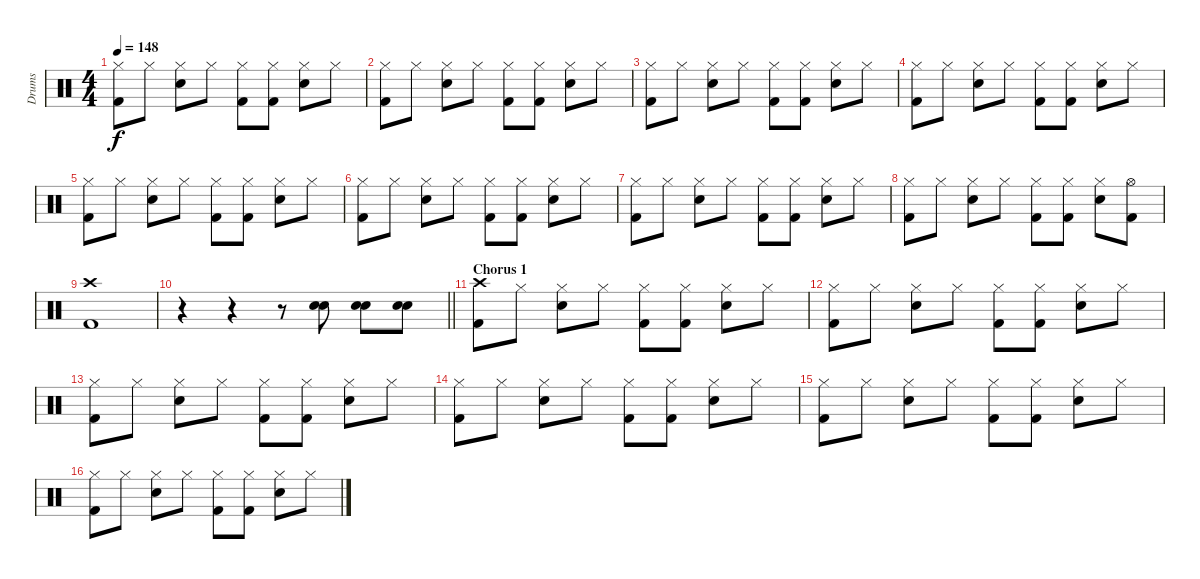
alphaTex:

\track ("Drums " "Drums ") {instrument percussion}
\staff {score}
\articulation defaults
\ts (4 4)
\tempo 148
\clef neutral
\ks c
("Hi-Hat (closed)" "Kick (hit) 2").8{dy f} "Hi-Hat (closed)".8 ("Hi-Hat (closed)" "Snare (hit) 2").8 "Hi-Hat (closed)".8 ("Hi-Hat (closed)" "Kick (hit) 2").8 ("Hi-Hat (closed)" "Kick (hit) 2").8 ("Hi-Hat (closed)" "Snare (hit) 2").8 "Hi-Hat (closed)".8 |
("Hi-Hat (closed)" "Kick (hit) 2").8 "Hi-Hat (closed)".8 ("Hi-Hat (closed)" "Snare (hit) 2").8 "Hi-Hat (closed)".8 ("Hi-Hat (closed)" "Kick (hit) 2").8 ("Hi-Hat (closed)" "Kick (hit) 2").8 ("Hi-Hat (closed)" "Snare (hit) 2").8 "Hi-Hat (closed)".8 |
("Hi-Hat (closed)" "Kick (hit) 2").8 "Hi-Hat (closed)".8 ("Hi-Hat (closed)" "Snare (hit) 2").8 "Hi-Hat (closed)".8 ("Hi-Hat (closed)" "Kick (hit) 2").8 ("Hi-Hat (closed)" "Kick (hit) 2").8 ("Hi-Hat (closed)" "Snare (hit) 2").8 "Hi-Hat (closed)".8 |
("Hi-Hat (closed)" "Kick (hit) 2").8 "Hi-Hat (closed)".8 ("Hi-Hat (closed)" "Snare (hit) 2").8 "Hi-Hat (closed)".8 ("Hi-Hat (closed)" "Kick (hit) 2").8 ("Hi-Hat (closed)" "Kick (hit) 2").8 ("Hi-Hat (closed)" "Snare (hit) 2").8 "Hi-Hat (closed)".8 |
("Hi-Hat (closed)" "Kick (hit) 2").8 "Hi-Hat (closed)".8 ("Hi-Hat (closed)" "Snare (hit) 2").8 "Hi-Hat (closed)".8 ("Hi-Hat (closed)" "Kick (hit) 2").8 ("Hi-Hat (closed)" "Kick (hit) 2").8 ("Hi-Hat (closed)" "Snare (hit) 2").8 "Hi-Hat (closed)".8 |
("Hi-Hat (closed)" "Kick (hit) 2").8 "Hi-Hat (closed)".8 ("Hi-Hat (closed)" "Snare (hit) 2").8 "Hi-Hat (closed)".8 ("Hi-Hat (closed)" "Kick (hit) 2").8 ("Hi-Hat (closed)" "Kick (hit) 2").8 ("Hi-Hat (closed)" "Snare (hit) 2").8 "Hi-Hat (closed)".8 |
("Hi-Hat (closed)" "Kick (hit) 2").8 "Hi-Hat (closed)".8 ("Hi-Hat (closed)" "Snare (hit) 2").8 "Hi-Hat (closed)".8 ("Hi-Hat (closed)" "Kick (hit) 2").8 ("Hi-Hat (closed)" "Kick (hit) 2").8 ("Hi-Hat (closed)" "Snare (hit) 2").8 "Hi-Hat (closed)".8 |
("Hi-Hat (closed)" "Kick (hit) 2").8 "Hi-Hat (closed)".8 ("Hi-Hat (closed)" "Snare (hit) 2").8 "Hi-Hat (closed)".8 ("Hi-Hat (closed)" "Kick (hit) 2").8 ("Hi-Hat (closed)" "Kick (hit) 2").8 ("Hi-Hat (closed)" "Snare (hit) 2").8 ("Hi-Hat (open)" "Kick (hit) 2").8 |
("Crash high (hit)" "Kick (hit) 2").1 |
\barLineRight lightlight
r.4 r.4 r.8 ("Hand Clap (hit)" "Snare (hit) 2").8 ("Hand Clap (hit)" "Snare (hit) 2").8 ("Hand Clap (hit)" "Snare (hit) 2").8 |
\section ("" "Chorus 1")
("Crash high (hit)" "Kick (hit) 2").8 "Hi-Hat (closed)".8 ("Hi-Hat (closed)" "Snare (hit) 2").8 "Hi-Hat (closed)".8 ("Hi-Hat (closed)" "Kick (hit) 2").8 ("Hi-Hat (closed)" "Kick (hit) 2").8 ("Hi-Hat (closed)" "Snare (hit) 2").8 "Hi-Hat (closed)".8 |
("Hi-Hat (closed)" "Kick (hit) 2").8 "Hi-Hat (closed)".8 ("Hi-Hat (closed)" "Snare (hit) 2").8 "Hi-Hat (closed)".8 ("Hi-Hat (closed)" "Kick (hit) 2").8 ("Hi-Hat (closed)" "Kick (hit) 2").8 ("Hi-Hat (closed)" "Snare (hit) 2").8 "Hi-Hat (closed)".8 |
("Hi-Hat (closed)" "Kick (hit) 2").8 "Hi-Hat (closed)".8 ("Hi-Hat (closed)" "Snare (hit) 2").8 "Hi-Hat (closed)".8 ("Hi-Hat (closed)" "Kick (hit) 2").8 ("Hi-Hat (closed)" "Kick (hit) 2").8 ("Hi-Hat (closed)" "Snare (hit) 2").8 "Hi-Hat (closed)".8 |
("Hi-Hat (closed)" "Kick (hit) 2").8 "Hi-Hat (closed)".8 ("Hi-Hat (closed)" "Snare (hit) 2").8 "Hi-Hat (closed)".8 ("Hi-Hat (closed)" "Kick (hit) 2").8 ("Hi-Hat (closed)" "Kick (hit) 2").8 ("Hi-Hat (closed)" "Snare (hit) 2").8 "Hi-Hat (closed)".8 |
("Hi-Hat (closed)" "Kick (hit) 2").8 "Hi-Hat (closed)".8 ("Hi-Hat (closed)" "Snare (hit) 2").8 "Hi-Hat (closed)".8 ("Hi-Hat (closed)" "Kick (hit) 2").8 ("Hi-Hat (closed)" "Kick (hit) 2").8 ("Hi-Hat (closed)" "Snare (hit) 2").8 "Hi-Hat (closed)".8 |
("Hi-Hat (closed)" "Kick (hit) 2").8 "Hi-Hat (closed)".8 ("Hi-Hat (closed)" "Snare (hit) 2").8 "Hi-Hat (closed)".8 ("Hi-Hat (closed)" "Kick (hit) 2").8 ("Hi-Hat (closed)" "Kick (hit) 2").8 ("Hi-Hat (closed)" "Snare (hit) 2").8 "Hi-Hat (closed)".8
